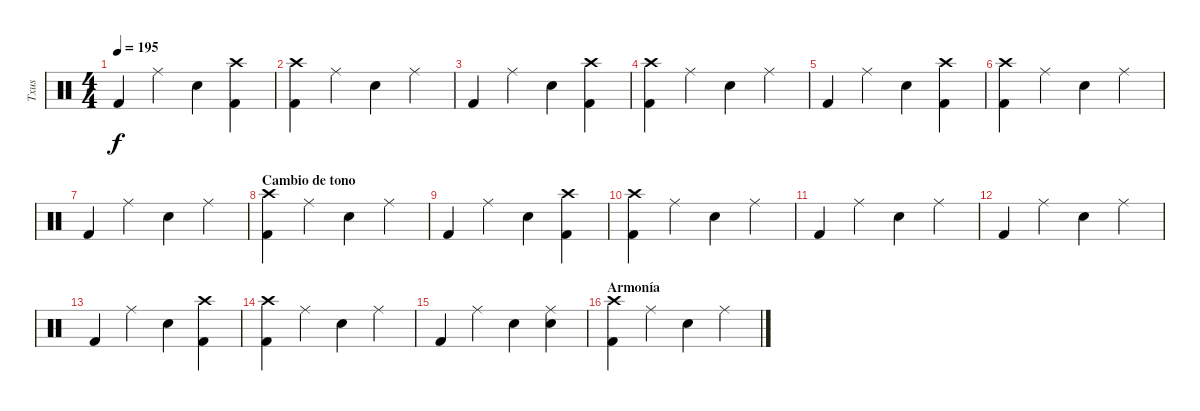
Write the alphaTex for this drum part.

\track ("Txus" "Txus") {instrument percussion}
\staff {score}
\articulation defaults
\ts (4 4)
\tempo 195
\clef neutral
\ks c "Kick (hit) 2".4{dy f} "Ride (middle)".4 "Electric Snare (hit)".4
("Kick (hit) 2" "Crash high (hit)").4 |
("Kick (hit) 2" "Crash high (hit)").4 "Ride (middle)".4 "Electric Snare (hit)".4 "Ride (middle)".4 |
"Kick (hit) 2".4 "Ride (middle)".4 "Electric Snare (hit)".4 ("Kick (hit) 2" "Crash high (hit)").4 |
("Kick (hit) 2" "Crash high (hit)").4 "Ride (middle)".4 "Electric Snare (hit)".4 "Ride (middle)".4 |
"Kick (hit) 2".4 "Ride (middle)".4 "Electric Snare (hit)".4 ("Kick (hit) 2" "Crash high (hit)").4 |
("Kick (hit) 2" "Crash high (hit)").4 "Ride (middle)".4 "Electric Snare (hit)".4 "Ride (middle)".4 |
"Kick (hit) 2".4 "Ride (middle)".4 "Electric Snare (hit)".4 "Ride (middle)".4 |
\section ("" "Cambio de tono")
("Kick (hit) 2" "Crash high (hit)").4 "Ride (middle)".4 "Electric Snare (hit)".4 "Ride (middle)".4 |
"Kick (hit) 2".4 "Ride (middle)".4 "Electric Snare (hit)".4 ("Kick (hit) 2" "Crash high (hit)").4 |
("Kick (hit) 2" "Crash high (hit)").4 "Ride (middle)".4 "Electric Snare (hit)".4 "Ride (middle)".4 |
"Kick (hit) 2".4 "Ride (middle)".4 "Electric Snare (hit)".4 "Ride (middle)".4 |
"Kick (hit) 2".4 "Ride (middle)".4 "Electric Snare (hit)".4 "Ride (middle)".4 |
"Kick (hit) 2".4 "Ride (middle)".4 "Electric Snare (hit)".4 ("Kick (hit) 2" "Crash high (hit)").4 |
("Kick (hit) 2" "Crash high (hit)").4 "Ride (middle)".4 "Electric Snare (hit)".4 "Ride (middle)".4 |
"Kick (hit) 2".4 "Ride (middle)".4 "Electric Snare (hit)".4 ("Ride (middle)" "Electric Snare (hit)").4 |
\section ("" "Armonía")
("Kick (hit) 2" "Crash high (hit)").4 "Ride (middle)".4 "Electric Snare (hit)".4 "Ride (middle)".4
